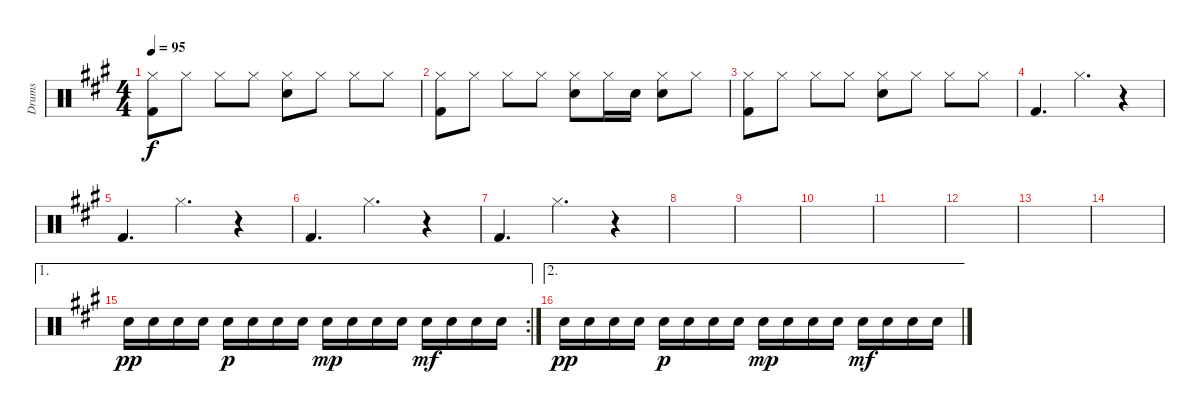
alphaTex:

\track ("Drums" "Drums") {instrument percussion}
\staff {score}
\articulation defaults
\ts (4 4)
\tempo 95
\clef neutral
\ks a
("Hi-Hat (closed)" "Kick (hit) 2").8{dy f} "Hi-Hat (closed)".8 "Hi-Hat (closed)".8 "Hi-Hat (closed)".8 ("Hi-Hat (closed)" "Snare (hit) 2").8 "Hi-Hat (closed)".8 "Hi-Hat (closed)".8 "Hi-Hat (closed)".8 |
("Hi-Hat (closed)" "Kick (hit) 2").8 "Hi-Hat (closed)".8 "Hi-Hat (closed)".8 "Hi-Hat (closed)".8 ("Hi-Hat (closed)" "Snare (hit) 2").8 "Hi-Hat (closed)".16 "Snare (hit) 2".16 ("Hi-Hat (closed)" "Snare (hit) 2").8 "Hi-Hat (closed)".8 |
("Hi-Hat (closed)" "Kick (hit) 2").8 "Hi-Hat (closed)".8 "Hi-Hat (closed)".8 "Hi-Hat (closed)".8 ("Hi-Hat (closed)" "Snare (hit) 2").8 "Hi-Hat (closed)".8 "Hi-Hat (closed)".8 "Hi-Hat (closed)".8 |
"Kick (hit) 2".4{d} "Hi-Hat (closed)".4{d} r.4 |
"Kick (hit) 2".4{d} "Hi-Hat (closed)".4{d} r.4 |
"Kick (hit) 2".4{d} "Hi-Hat (closed)".4{d} r.4 |
"Kick (hit) 2".4{d} "Hi-Hat (closed)".4{d} r.4 |
|
|
|
|
|
|
|
\ae 1
\rc 2 "Snare (hit) 2".16{dy pp} "Snare (hit) 2".16 "Snare (hit) 2".16 "Snare (hit) 2".16 "Snare (hit) 2".16{dy p} "Snare (hit) 2".16 "Snare (hit) 2".16 "Snare (hit) 2".16 "Snare (hit) 2".16{dy mp} "Snare (hit) 2".16 "Snare (hit) 2".16 "Snare (hit) 2".16 "Snare (hit) 2".16{dy mf} "Snare (hit) 2".16 "Snare (hit) 2".16 "Snare (hit) 2".16
|
\ae 2 "Snare (hit) 2".16{dy pp} "Snare (hit) 2".16 "Snare (hit) 2".16 "Snare (hit) 2".16 "Snare (hit) 2".16{dy p} "Snare (hit) 2".16 "Snare (hit) 2".16 "Snare (hit) 2".16 "Snare (hit) 2".16{dy mp} "Snare (hit) 2".16 "Snare (hit) 2".16 "Snare (hit) 2".16 "Snare (hit) 2".16{dy mf} "Snare (hit) 2".16 "Snare (hit) 2".16 "Snare (hit) 2".16
